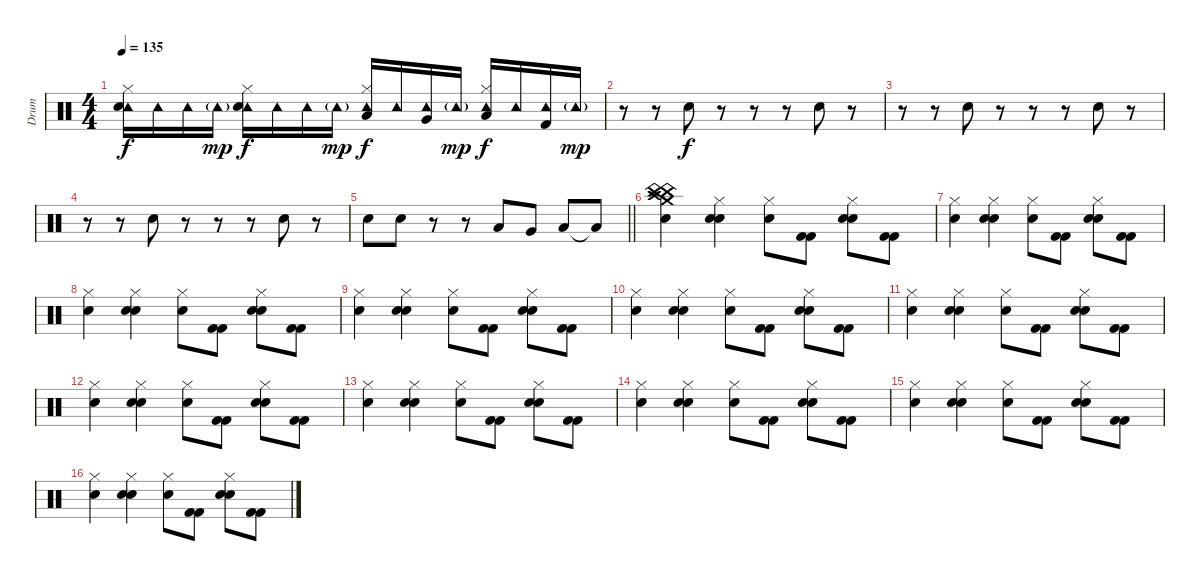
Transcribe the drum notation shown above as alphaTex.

\track ("Drum" "Drum") {instrument percussion}
\staff {score}
\articulation defaults
\ts (4 4)
\tempo 135
\clef neutral
\ks c
("Tambourine (hit)" "Hi-Hat (closed)" "Electric Snare (hit)").16{dy f} "Tambourine (hit)".16 "Tambourine (hit)".16 "Tambourine (hit)"{g}.16{dy mp} ("Tambourine (hit)" "Hi-Hat (closed)" "Electric Snare (hit)").16{dy f} "Tambourine (hit)".16 "Tambourine (hit)".16 "Tambourine (hit)"{g}.16{dy mp} ("Tambourine (hit)" "Hi-Hat (closed)" "Low Tom (hit)").16{dy f} "Tambourine (hit)".16 ("Tambourine (hit)" "Very Low Tom (hit)").16 "Tambourine (hit)"{g}.16{dy mp} ("Tambourine (hit)" "Hi-Hat (closed)" "Low Floor Tom (hit)").16{dy f} "Tambourine (hit)".16 ("Tambourine (hit)" "Kick (hit) 2").16 "Tambourine (hit)"{g}.16{dy mp} |
r.8 r.8 "Hand Clap (hit)".8{dy f} r.8 r.8 r.8 "Hand Clap (hit)".8 r.8 |
r.8 r.8 "Hand Clap (hit)".8 r.8 r.8 r.8 "Hand Clap (hit)".8 r.8 |
r.8 r.8 "Hand Clap (hit)".8 r.8 r.8 r.8 "Hand Clap (hit)".8 r.8 |
\barLineRight lightlight "Electric Snare (hit)".8 "Electric Snare (hit)".8
r.8 r.8 "Low Tom (hit)".8 "Very Low Tom (hit)".8 "Low Floor Tom (hit)".8 "Low Floor Tom (hit)"{t}.8 |
("China (hit)" "China (hit)" "Crash medium (hit)" "Crash high (hit)" "Electric Snare (hit)").4 ("Hi-Hat (closed)" "Hand Clap (hit)" "Electric Snare (hit)").4 ("Hi-Hat (closed)" "Electric Snare (hit)").8 ("Kick (hit) 2" "Kick (hit) 2").8 ("Hi-Hat (closed)" "Hand Clap (hit)" "Electric Snare (hit)").8 ("Kick (hit) 2" "Kick (hit) 2").8 |
("Hi-Hat (closed)" "Electric Snare (hit)").4 ("Hi-Hat (closed)" "Hand Clap (hit)" "Electric Snare (hit)").4 ("Hi-Hat (closed)" "Electric Snare (hit)").8 ("Kick (hit) 2" "Kick (hit) 2").8 ("Hi-Hat (closed)" "Hand Clap (hit)" "Electric Snare (hit)").8 ("Kick (hit) 2" "Kick (hit) 2").8 |
("Hi-Hat (closed)" "Electric Snare (hit)").4 ("Hi-Hat (closed)" "Hand Clap (hit)" "Electric Snare (hit)").4 ("Hi-Hat (closed)" "Electric Snare (hit)").8 ("Kick (hit) 2" "Kick (hit) 2").8 ("Hi-Hat (closed)" "Hand Clap (hit)" "Electric Snare (hit)").8 ("Kick (hit) 2" "Kick (hit) 2").8 |
("Hi-Hat (closed)" "Electric Snare (hit)").4 ("Hi-Hat (closed)" "Hand Clap (hit)" "Electric Snare (hit)").4 ("Hi-Hat (closed)" "Electric Snare (hit)").8 ("Kick (hit) 2" "Kick (hit) 2").8 ("Hi-Hat (closed)" "Hand Clap (hit)" "Electric Snare (hit)").8 ("Kick (hit) 2" "Kick (hit) 2").8 |
("Hi-Hat (closed)" "Electric Snare (hit)").4 ("Hi-Hat (closed)" "Hand Clap (hit)" "Electric Snare (hit)").4 ("Hi-Hat (closed)" "Electric Snare (hit)").8 ("Kick (hit) 2" "Kick (hit) 2").8 ("Hi-Hat (closed)" "Hand Clap (hit)" "Electric Snare (hit)").8 ("Kick (hit) 2" "Kick (hit) 2").8 |
("Hi-Hat (closed)" "Electric Snare (hit)").4 ("Hi-Hat (closed)" "Hand Clap (hit)" "Electric Snare (hit)").4 ("Hi-Hat (closed)" "Electric Snare (hit)").8 ("Kick (hit) 2" "Kick (hit) 2").8 ("Hi-Hat (closed)" "Hand Clap (hit)" "Electric Snare (hit)").8 ("Kick (hit) 2" "Kick (hit) 2").8 |
("Hi-Hat (closed)" "Electric Snare (hit)").4 ("Hi-Hat (closed)" "Hand Clap (hit)" "Electric Snare (hit)").4 ("Hi-Hat (closed)" "Electric Snare (hit)").8 ("Kick (hit) 2" "Kick (hit) 2").8 ("Hi-Hat (closed)" "Hand Clap (hit)" "Electric Snare (hit)").8 ("Kick (hit) 2" "Kick (hit) 2").8 |
("Hi-Hat (closed)" "Electric Snare (hit)").4 ("Hi-Hat (closed)" "Hand Clap (hit)" "Electric Snare (hit)").4 ("Hi-Hat (closed)" "Electric Snare (hit)").8 ("Kick (hit) 2" "Kick (hit) 2").8 ("Hi-Hat (closed)" "Hand Clap (hit)" "Electric Snare (hit)").8 ("Kick (hit) 2" "Kick (hit) 2").8 |
("Hi-Hat (closed)" "Electric Snare (hit)").4 ("Hi-Hat (closed)" "Hand Clap (hit)" "Electric Snare (hit)").4 ("Hi-Hat (closed)" "Electric Snare (hit)").8 ("Kick (hit) 2" "Kick (hit) 2").8 ("Hi-Hat (closed)" "Hand Clap (hit)" "Electric Snare (hit)").8 ("Kick (hit) 2" "Kick (hit) 2").8 |
("Hi-Hat (closed)" "Electric Snare (hit)").4 ("Hi-Hat (closed)" "Hand Clap (hit)" "Electric Snare (hit)").4 ("Hi-Hat (closed)" "Electric Snare (hit)").8 ("Kick (hit) 2" "Kick (hit) 2").8 ("Hi-Hat (closed)" "Hand Clap (hit)" "Electric Snare (hit)").8 ("Kick (hit) 2" "Kick (hit) 2").8 |
("Hi-Hat (closed)" "Electric Snare (hit)").4 ("Hi-Hat (closed)" "Hand Clap (hit)" "Electric Snare (hit)").4 ("Hi-Hat (closed)" "Electric Snare (hit)").8 ("Kick (hit) 2" "Kick (hit) 2").8 ("Hi-Hat (closed)" "Hand Clap (hit)" "Electric Snare (hit)").8 ("Kick (hit) 2" "Kick (hit) 2").8
